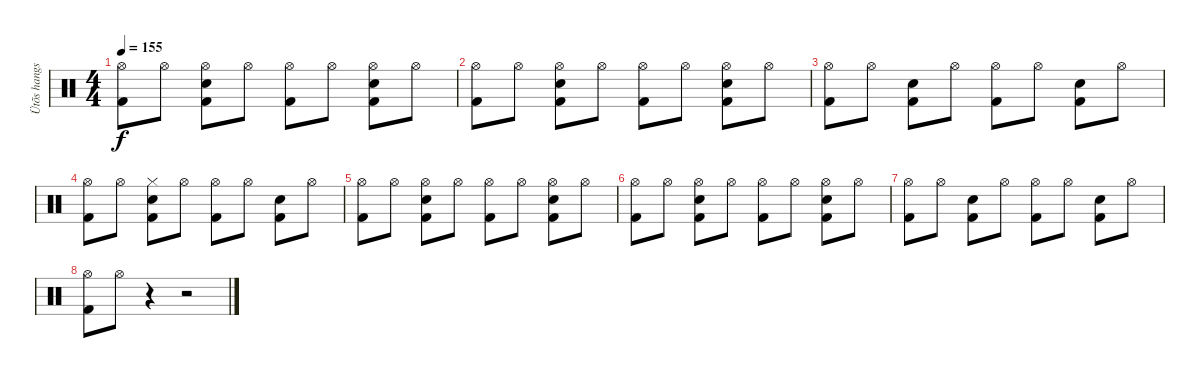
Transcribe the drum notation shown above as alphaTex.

\track ("Ütõs hangszer" "Ütõs hangs") {instrument percussion}
\staff {score}
\articulation defaults
\ts (4 4)
\tempo 155
\clef neutral
\ks c
("Hi-Hat (open)" "Kick (hit) 2").8{dy f} "Hi-Hat (open)".8 ("Hi-Hat (open)" "Electric Snare (hit)" "Kick (hit) 2").8 "Hi-Hat (open)".8 ("Hi-Hat (open)" "Kick (hit) 2").8 "Hi-Hat (open)".8 ("Hi-Hat (open)" "Electric Snare (hit)" "Kick (hit) 2").8 "Hi-Hat (open)".8 |
("Hi-Hat (open)" "Kick (hit) 2").8 "Hi-Hat (open)".8 ("Hi-Hat (open)" "Electric Snare (hit)" "Kick (hit) 2").8 "Hi-Hat (open)".8 ("Hi-Hat (open)" "Kick (hit) 2").8 "Hi-Hat (open)".8 ("Hi-Hat (open)" "Electric Snare (hit)" "Kick (hit) 2").8 "Hi-Hat (open)".8 |
("Hi-Hat (open)" "Kick (hit) 2").8 "Hi-Hat (open)".8 ("Electric Snare (hit)" "Kick (hit) 2").8 "Hi-Hat (open)".8 ("Hi-Hat (open)" "Kick (hit) 2").8 "Hi-Hat (open)".8 ("Electric Snare (hit)" "Kick (hit) 2").8 "Hi-Hat (open)".8 |
("Hi-Hat (open)" "Kick (hit) 2").8 "Hi-Hat (open)".8 ("Electric Snare (hit)" "Hi-Hat (closed)" "Kick (hit) 2").8 "Hi-Hat (open)".8 ("Hi-Hat (open)" "Kick (hit) 2").8 "Hi-Hat (open)".8 ("Electric Snare (hit)" "Kick (hit) 2").8 "Hi-Hat (open)".8 |
("Hi-Hat (open)" "Kick (hit) 2").8 "Hi-Hat (open)".8 ("Hi-Hat (open)" "Electric Snare (hit)" "Kick (hit) 2").8 "Hi-Hat (open)".8 ("Hi-Hat (open)" "Kick (hit) 2").8 "Hi-Hat (open)".8 ("Hi-Hat (open)" "Electric Snare (hit)" "Kick (hit) 2").8 "Hi-Hat (open)".8 |
("Hi-Hat (open)" "Kick (hit) 2").8 "Hi-Hat (open)".8 ("Hi-Hat (open)" "Electric Snare (hit)" "Kick (hit) 2").8 "Hi-Hat (open)".8 ("Hi-Hat (open)" "Kick (hit) 2").8 "Hi-Hat (open)".8 ("Hi-Hat (open)" "Electric Snare (hit)" "Kick (hit) 2").8 "Hi-Hat (open)".8 |
("Hi-Hat (open)" "Kick (hit) 2").8 "Hi-Hat (open)".8 ("Electric Snare (hit)" "Kick (hit) 2").8 "Hi-Hat (open)".8 ("Hi-Hat (open)" "Kick (hit) 2").8 "Hi-Hat (open)".8 ("Electric Snare (hit)" "Kick (hit) 2").8 "Hi-Hat (open)".8 |
("Hi-Hat (open)" "Kick (hit) 2").8 "Hi-Hat (open)".8 r.4 r.2
